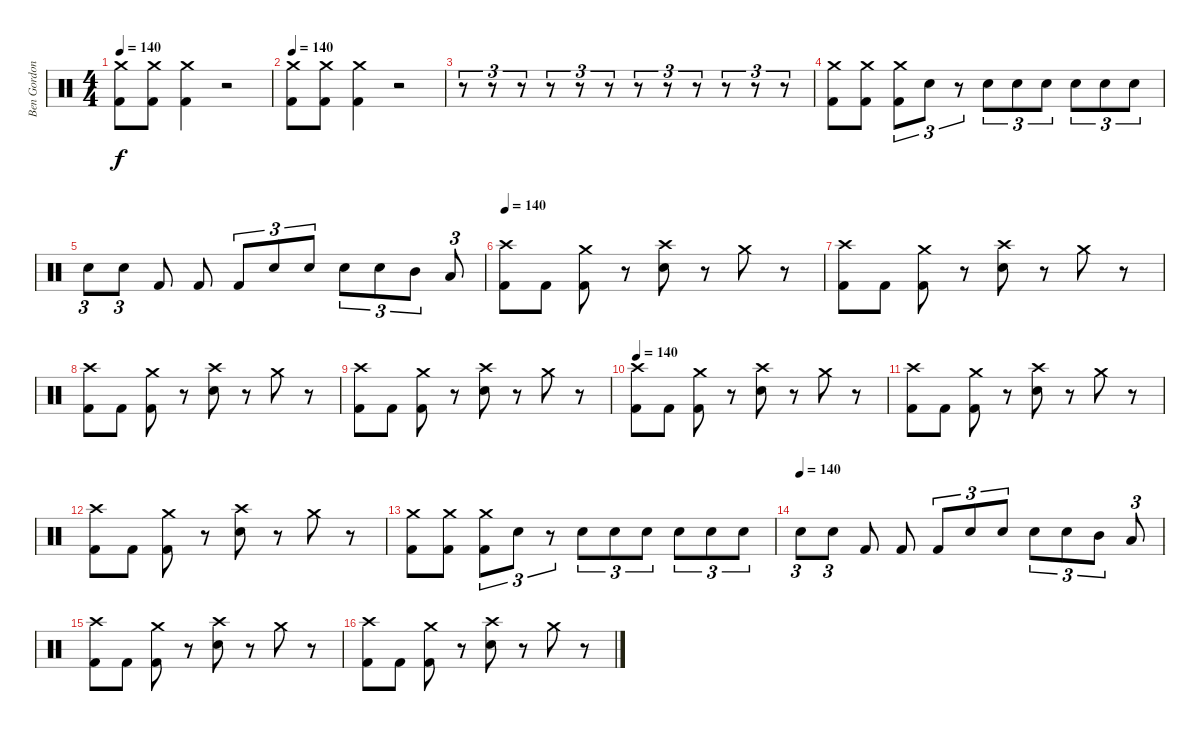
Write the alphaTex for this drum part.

\track ("Ben Gordon" "Ben Gordon") {instrument percussion}
\staff {score}
\articulation defaults
\ts (4 4)
\tempo 140
\clef neutral
\ks c
("Crash medium (hit)" "Kick (hit) 2").8{dy f} ("Crash medium (hit)" "Kick (hit) 2").8 ("Crash medium (hit)" "Kick (hit) 2").4 r.2 |
\tempo 140
("Crash medium (hit)" "Kick (hit) 2").8 ("Crash medium (hit)" "Kick (hit) 2").8 ("Crash medium (hit)" "Kick (hit) 2").4 r.2 |
r.8{tu (3 2)} r.8{tu (3 2)} r.8{tu (3 2)} r.8{tu (3 2)} r.8{tu (3 2)} r.8{tu (3 2)} r.8{tu (3 2)} r.8{tu (3 2)} r.8{tu (3 2)} r.8{tu (3 2)} r.8{tu (3 2)} r.8{tu (3 2)} |
("Crash medium (hit)" "Kick (hit) 2").8 ("Crash medium (hit)" "Kick (hit) 2").8 ("Crash medium (hit)" "Kick (hit) 2").8{tu (3 2)} "Electric Snare (hit)".8{tu (3 2)} r.8{tu (3 2)} "Electric Snare (hit)".8{tu (3 2)} "Electric Snare (hit)".8{tu (3 2)} "Electric Snare (hit)".8{tu (3 2)} "Electric Snare (hit)".8{tu (3 2)} "Electric Snare (hit)".8{tu (3 2)} "Electric Snare (hit)".8{tu (3 2)} |
"Electric Snare (hit)".8{tu (3 2)} "Electric Snare (hit)".8{tu (3 2)} "Kick (hit) 2".8 "Kick (hit) 2".8 "Kick (hit) 2".8{tu (3 2)} "Electric Snare (hit)".8{tu (3 2)} "Electric Snare (hit)".8{tu (3 2)} "Electric Snare (hit)".8{tu (3 2)} "Electric Snare (hit)".8{tu (3 2)} "Mid Tom (hit)".8{tu (3 2)} "Low Tom (hit)".8{tu (3 2)} |
\tempo 140
("Crash high (hit)" "Kick (hit) 2").8 "Kick (hit) 2".8 ("Crash medium (hit)" "Kick (hit) 2").8 r.8 ("Electric Snare (hit)" "Crash high (hit)").8 r.8 "Crash medium (hit)".8 r.8 |
("Crash high (hit)" "Kick (hit) 2").8 "Kick (hit) 2".8 ("Crash medium (hit)" "Kick (hit) 2").8 r.8 ("Electric Snare (hit)" "Crash high (hit)").8 r.8 "Crash medium (hit)".8 r.8 |
("Crash high (hit)" "Kick (hit) 2").8 "Kick (hit) 2".8 ("Crash medium (hit)" "Kick (hit) 2").8 r.8 ("Electric Snare (hit)" "Crash high (hit)").8 r.8 "Crash medium (hit)".8 r.8 |
("Crash high (hit)" "Kick (hit) 2").8 "Kick (hit) 2".8 ("Crash medium (hit)" "Kick (hit) 2").8 r.8 ("Electric Snare (hit)" "Crash high (hit)").8 r.8 "Crash medium (hit)".8 r.8 |
\tempo 140
("Crash high (hit)" "Kick (hit) 2").8 "Kick (hit) 2".8 ("Crash medium (hit)" "Kick (hit) 2").8 r.8 ("Electric Snare (hit)" "Crash high (hit)").8 r.8 "Crash medium (hit)".8 r.8 |
("Crash high (hit)" "Kick (hit) 2").8 "Kick (hit) 2".8 ("Crash medium (hit)" "Kick (hit) 2").8 r.8 ("Electric Snare (hit)" "Crash high (hit)").8 r.8 "Crash medium (hit)".8 r.8 |
("Crash high (hit)" "Kick (hit) 2").8 "Kick (hit) 2".8 ("Crash medium (hit)" "Kick (hit) 2").8 r.8 ("Electric Snare (hit)" "Crash high (hit)").8 r.8 "Crash medium (hit)".8 r.8 |
("Crash medium (hit)" "Kick (hit) 2").8 ("Crash medium (hit)" "Kick (hit) 2").8 ("Crash medium (hit)" "Kick (hit) 2").8{tu (3 2)} "Electric Snare (hit)".8{tu (3 2)} r.8{tu (3 2)} "Electric Snare (hit)".8{tu (3 2)} "Electric Snare (hit)".8{tu (3 2)} "Electric Snare (hit)".8{tu (3 2)} "Electric Snare (hit)".8{tu (3 2)} "Electric Snare (hit)".8{tu (3 2)} "Electric Snare (hit)".8{tu (3 2)} |
\tempo (140)
"Electric Snare (hit)".8{tu (3 2)} "Electric Snare (hit)".8{tu (3 2)} "Kick (hit) 2".8 "Kick (hit) 2".8 "Kick (hit) 2".8{tu (3 2)} "Electric Snare (hit)".8{tu (3 2)} "Electric Snare (hit)".8{tu (3 2)} "Electric Snare (hit)".8{tu (3 2)} "Electric Snare (hit)".8{tu (3 2)} "Mid Tom (hit)".8{tu (3 2)} "Low Tom (hit)".8{tu (3 2)} |
("Crash high (hit)" "Kick (hit) 2").8 "Kick (hit) 2".8 ("Crash medium (hit)" "Kick (hit) 2").8 r.8 ("Electric Snare (hit)" "Crash high (hit)").8 r.8 "Crash medium (hit)".8 r.8 |
("Crash high (hit)" "Kick (hit) 2").8 "Kick (hit) 2".8 ("Crash medium (hit)" "Kick (hit) 2").8 r.8 ("Electric Snare (hit)" "Crash high (hit)").8 r.8 "Crash medium (hit)".8 r.8
